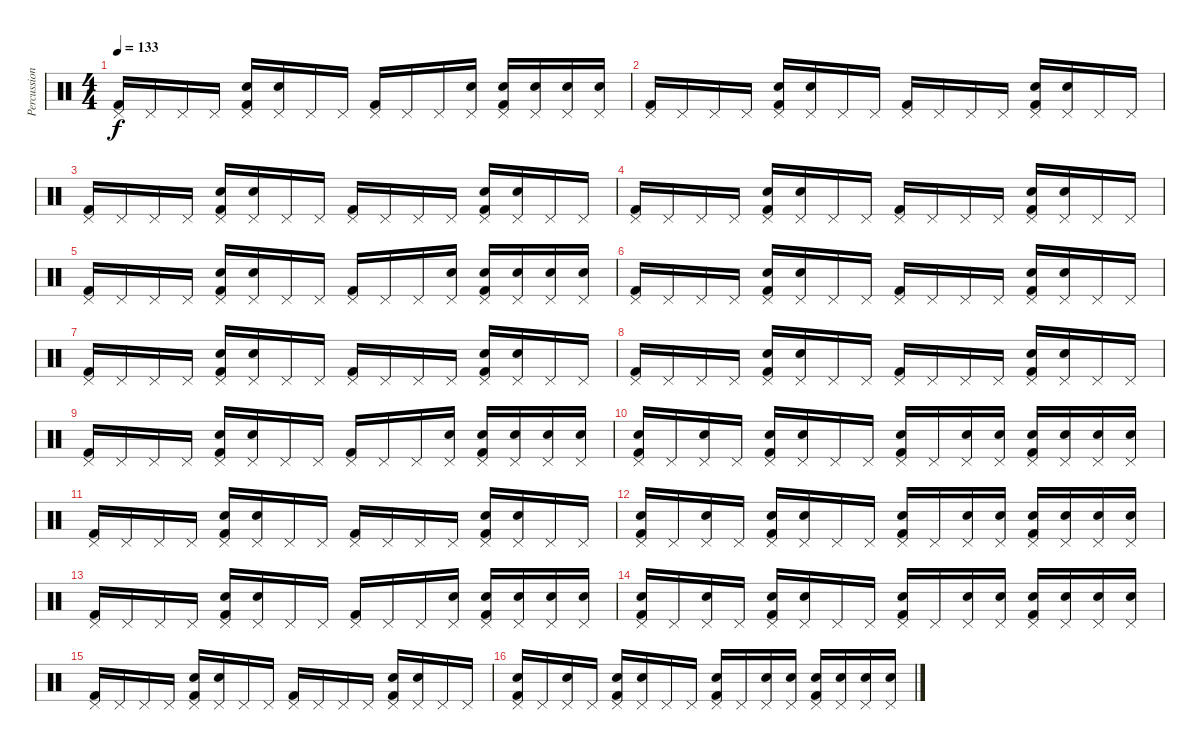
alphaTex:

\track ("Percussions" "Percussion") {instrument percussion}
\staff {score}
\articulation defaults
\ts (4 4)
\tempo 133
\clef neutral
\ks c
("Pedal Hi-Hat (hit)" "Kick (hit) 2").16{dy f} "Pedal Hi-Hat (hit)".16 "Pedal Hi-Hat (hit)".16 "Pedal Hi-Hat (hit)".16 ("Pedal Hi-Hat (hit)" "Electric Snare (hit)" "Kick (hit) 2").16 ("Pedal Hi-Hat (hit)" "Electric Snare (hit)").16 "Pedal Hi-Hat (hit)".16 "Pedal Hi-Hat (hit)".16 ("Pedal Hi-Hat (hit)" "Kick (hit) 2").16 "Pedal Hi-Hat (hit)".16 "Pedal Hi-Hat (hit)".16 ("Pedal Hi-Hat (hit)" "Electric Snare (hit)").16 ("Pedal Hi-Hat (hit)" "Electric Snare (hit)" "Kick (hit) 2").16 ("Pedal Hi-Hat (hit)" "Electric Snare (hit)").16 ("Pedal Hi-Hat (hit)" "Electric Snare (hit)").16 ("Pedal Hi-Hat (hit)" "Electric Snare (hit)").16 |
("Pedal Hi-Hat (hit)" "Kick (hit) 2").16 "Pedal Hi-Hat (hit)".16 "Pedal Hi-Hat (hit)".16 "Pedal Hi-Hat (hit)".16 ("Pedal Hi-Hat (hit)" "Electric Snare (hit)" "Kick (hit) 2").16 ("Pedal Hi-Hat (hit)" "Electric Snare (hit)").16 "Pedal Hi-Hat (hit)".16 "Pedal Hi-Hat (hit)".16 ("Pedal Hi-Hat (hit)" "Kick (hit) 2").16 "Pedal Hi-Hat (hit)".16 "Pedal Hi-Hat (hit)".16 "Pedal Hi-Hat (hit)".16 ("Pedal Hi-Hat (hit)" "Electric Snare (hit)" "Kick (hit) 2").16 ("Pedal Hi-Hat (hit)" "Electric Snare (hit)").16 "Pedal Hi-Hat (hit)".16 "Pedal Hi-Hat (hit)".16 |
("Pedal Hi-Hat (hit)" "Kick (hit) 2").16 "Pedal Hi-Hat (hit)".16 "Pedal Hi-Hat (hit)".16 "Pedal Hi-Hat (hit)".16 ("Pedal Hi-Hat (hit)" "Electric Snare (hit)" "Kick (hit) 2").16 ("Pedal Hi-Hat (hit)" "Electric Snare (hit)").16 "Pedal Hi-Hat (hit)".16 "Pedal Hi-Hat (hit)".16 ("Pedal Hi-Hat (hit)" "Kick (hit) 2").16 "Pedal Hi-Hat (hit)".16 "Pedal Hi-Hat (hit)".16 "Pedal Hi-Hat (hit)".16 ("Pedal Hi-Hat (hit)" "Electric Snare (hit)" "Kick (hit) 2").16 ("Pedal Hi-Hat (hit)" "Electric Snare (hit)").16 "Pedal Hi-Hat (hit)".16 "Pedal Hi-Hat (hit)".16 |
("Pedal Hi-Hat (hit)" "Kick (hit) 2").16 "Pedal Hi-Hat (hit)".16 "Pedal Hi-Hat (hit)".16 "Pedal Hi-Hat (hit)".16 ("Pedal Hi-Hat (hit)" "Electric Snare (hit)" "Kick (hit) 2").16 ("Pedal Hi-Hat (hit)" "Electric Snare (hit)").16 "Pedal Hi-Hat (hit)".16 "Pedal Hi-Hat (hit)".16 ("Pedal Hi-Hat (hit)" "Kick (hit) 2").16 "Pedal Hi-Hat (hit)".16 "Pedal Hi-Hat (hit)".16 "Pedal Hi-Hat (hit)".16 ("Pedal Hi-Hat (hit)" "Electric Snare (hit)" "Kick (hit) 2").16 ("Pedal Hi-Hat (hit)" "Electric Snare (hit)").16 "Pedal Hi-Hat (hit)".16 "Pedal Hi-Hat (hit)".16 |
("Pedal Hi-Hat (hit)" "Kick (hit) 2").16 "Pedal Hi-Hat (hit)".16 "Pedal Hi-Hat (hit)".16 "Pedal Hi-Hat (hit)".16 ("Pedal Hi-Hat (hit)" "Electric Snare (hit)" "Kick (hit) 2").16 ("Pedal Hi-Hat (hit)" "Electric Snare (hit)").16 "Pedal Hi-Hat (hit)".16 "Pedal Hi-Hat (hit)".16 ("Pedal Hi-Hat (hit)" "Kick (hit) 2").16 "Pedal Hi-Hat (hit)".16 "Pedal Hi-Hat (hit)".16 ("Pedal Hi-Hat (hit)" "Electric Snare (hit)").16 ("Pedal Hi-Hat (hit)" "Electric Snare (hit)" "Kick (hit) 2").16 ("Pedal Hi-Hat (hit)" "Electric Snare (hit)").16 ("Pedal Hi-Hat (hit)" "Electric Snare (hit)").16 ("Pedal Hi-Hat (hit)" "Electric Snare (hit)").16 |
("Pedal Hi-Hat (hit)" "Kick (hit) 2").16 "Pedal Hi-Hat (hit)".16 "Pedal Hi-Hat (hit)".16 "Pedal Hi-Hat (hit)".16 ("Pedal Hi-Hat (hit)" "Electric Snare (hit)" "Kick (hit) 2").16 ("Pedal Hi-Hat (hit)" "Electric Snare (hit)").16 "Pedal Hi-Hat (hit)".16 "Pedal Hi-Hat (hit)".16 ("Pedal Hi-Hat (hit)" "Kick (hit) 2").16 "Pedal Hi-Hat (hit)".16 "Pedal Hi-Hat (hit)".16 "Pedal Hi-Hat (hit)".16 ("Pedal Hi-Hat (hit)" "Electric Snare (hit)" "Kick (hit) 2").16 ("Pedal Hi-Hat (hit)" "Electric Snare (hit)").16 "Pedal Hi-Hat (hit)".16 "Pedal Hi-Hat (hit)".16 |
("Pedal Hi-Hat (hit)" "Kick (hit) 2").16 "Pedal Hi-Hat (hit)".16 "Pedal Hi-Hat (hit)".16 "Pedal Hi-Hat (hit)".16 ("Pedal Hi-Hat (hit)" "Electric Snare (hit)" "Kick (hit) 2").16 ("Pedal Hi-Hat (hit)" "Electric Snare (hit)").16 "Pedal Hi-Hat (hit)".16 "Pedal Hi-Hat (hit)".16 ("Pedal Hi-Hat (hit)" "Kick (hit) 2").16 "Pedal Hi-Hat (hit)".16 "Pedal Hi-Hat (hit)".16 "Pedal Hi-Hat (hit)".16 ("Pedal Hi-Hat (hit)" "Electric Snare (hit)" "Kick (hit) 2").16 ("Pedal Hi-Hat (hit)" "Electric Snare (hit)").16 "Pedal Hi-Hat (hit)".16 "Pedal Hi-Hat (hit)".16 |
("Pedal Hi-Hat (hit)" "Kick (hit) 2").16 "Pedal Hi-Hat (hit)".16 "Pedal Hi-Hat (hit)".16 "Pedal Hi-Hat (hit)".16 ("Pedal Hi-Hat (hit)" "Electric Snare (hit)" "Kick (hit) 2").16 ("Pedal Hi-Hat (hit)" "Electric Snare (hit)").16 "Pedal Hi-Hat (hit)".16 "Pedal Hi-Hat (hit)".16 ("Pedal Hi-Hat (hit)" "Kick (hit) 2").16 "Pedal Hi-Hat (hit)".16 "Pedal Hi-Hat (hit)".16 "Pedal Hi-Hat (hit)".16 ("Pedal Hi-Hat (hit)" "Electric Snare (hit)" "Kick (hit) 2").16 ("Pedal Hi-Hat (hit)" "Electric Snare (hit)").16 "Pedal Hi-Hat (hit)".16 "Pedal Hi-Hat (hit)".16 |
("Pedal Hi-Hat (hit)" "Kick (hit) 2").16 "Pedal Hi-Hat (hit)".16 "Pedal Hi-Hat (hit)".16 "Pedal Hi-Hat (hit)".16 ("Pedal Hi-Hat (hit)" "Electric Snare (hit)" "Kick (hit) 2").16 ("Pedal Hi-Hat (hit)" "Electric Snare (hit)").16 "Pedal Hi-Hat (hit)".16 "Pedal Hi-Hat (hit)".16 ("Pedal Hi-Hat (hit)" "Kick (hit) 2").16 "Pedal Hi-Hat (hit)".16 "Pedal Hi-Hat (hit)".16 ("Pedal Hi-Hat (hit)" "Electric Snare (hit)").16 ("Pedal Hi-Hat (hit)" "Electric Snare (hit)" "Kick (hit) 2").16 ("Pedal Hi-Hat (hit)" "Electric Snare (hit)").16 ("Pedal Hi-Hat (hit)" "Electric Snare (hit)").16 ("Pedal Hi-Hat (hit)" "Electric Snare (hit)").16 |
("Pedal Hi-Hat (hit)" "Electric Snare (hit)" "Kick (hit) 2").16 "Pedal Hi-Hat (hit)".16 ("Pedal Hi-Hat (hit)" "Electric Snare (hit)").16 "Pedal Hi-Hat (hit)".16 ("Pedal Hi-Hat (hit)" "Electric Snare (hit)" "Kick (hit) 2").16 ("Pedal Hi-Hat (hit)" "Electric Snare (hit)").16 "Pedal Hi-Hat (hit)".16 "Pedal Hi-Hat (hit)".16 ("Pedal Hi-Hat (hit)" "Electric Snare (hit)" "Kick (hit) 2").16 "Pedal Hi-Hat (hit)".16 ("Pedal Hi-Hat (hit)" "Electric Snare (hit)").16 ("Pedal Hi-Hat (hit)" "Electric Snare (hit)").16 ("Pedal Hi-Hat (hit)" "Electric Snare (hit)" "Kick (hit) 2").16 ("Pedal Hi-Hat (hit)" "Electric Snare (hit)").16 ("Pedal Hi-Hat (hit)" "Electric Snare (hit)").16 ("Pedal Hi-Hat (hit)" "Electric Snare (hit)").16 |
("Pedal Hi-Hat (hit)" "Kick (hit) 2").16 "Pedal Hi-Hat (hit)".16 "Pedal Hi-Hat (hit)".16 "Pedal Hi-Hat (hit)".16 ("Pedal Hi-Hat (hit)" "Electric Snare (hit)" "Kick (hit) 2").16 ("Pedal Hi-Hat (hit)" "Electric Snare (hit)").16 "Pedal Hi-Hat (hit)".16 "Pedal Hi-Hat (hit)".16 ("Pedal Hi-Hat (hit)" "Kick (hit) 2").16 "Pedal Hi-Hat (hit)".16 "Pedal Hi-Hat (hit)".16 "Pedal Hi-Hat (hit)".16 ("Pedal Hi-Hat (hit)" "Electric Snare (hit)" "Kick (hit) 2").16 ("Pedal Hi-Hat (hit)" "Electric Snare (hit)").16 "Pedal Hi-Hat (hit)".16 "Pedal Hi-Hat (hit)".16 |
("Pedal Hi-Hat (hit)" "Electric Snare (hit)" "Kick (hit) 2").16 "Pedal Hi-Hat (hit)".16 ("Pedal Hi-Hat (hit)" "Electric Snare (hit)").16 "Pedal Hi-Hat (hit)".16 ("Pedal Hi-Hat (hit)" "Electric Snare (hit)" "Kick (hit) 2").16 ("Pedal Hi-Hat (hit)" "Electric Snare (hit)").16 "Pedal Hi-Hat (hit)".16 "Pedal Hi-Hat (hit)".16 ("Pedal Hi-Hat (hit)" "Electric Snare (hit)" "Kick (hit) 2").16 "Pedal Hi-Hat (hit)".16 ("Pedal Hi-Hat (hit)" "Electric Snare (hit)").16 ("Pedal Hi-Hat (hit)" "Electric Snare (hit)").16 ("Pedal Hi-Hat (hit)" "Electric Snare (hit)" "Kick (hit) 2").16 ("Pedal Hi-Hat (hit)" "Electric Snare (hit)").16 ("Pedal Hi-Hat (hit)" "Electric Snare (hit)").16 ("Pedal Hi-Hat (hit)" "Electric Snare (hit)").16 |
("Pedal Hi-Hat (hit)" "Kick (hit) 2").16 "Pedal Hi-Hat (hit)".16 "Pedal Hi-Hat (hit)".16 "Pedal Hi-Hat (hit)".16 ("Pedal Hi-Hat (hit)" "Electric Snare (hit)" "Kick (hit) 2").16 ("Pedal Hi-Hat (hit)" "Electric Snare (hit)").16 "Pedal Hi-Hat (hit)".16 "Pedal Hi-Hat (hit)".16 ("Pedal Hi-Hat (hit)" "Kick (hit) 2").16 "Pedal Hi-Hat (hit)".16 "Pedal Hi-Hat (hit)".16 ("Pedal Hi-Hat (hit)" "Electric Snare (hit)").16 ("Pedal Hi-Hat (hit)" "Electric Snare (hit)" "Kick (hit) 2").16 ("Pedal Hi-Hat (hit)" "Electric Snare (hit)").16 ("Pedal Hi-Hat (hit)" "Electric Snare (hit)").16 ("Pedal Hi-Hat (hit)" "Electric Snare (hit)").16 |
("Pedal Hi-Hat (hit)" "Electric Snare (hit)" "Kick (hit) 2").16 "Pedal Hi-Hat (hit)".16 ("Pedal Hi-Hat (hit)" "Electric Snare (hit)").16 "Pedal Hi-Hat (hit)".16 ("Pedal Hi-Hat (hit)" "Electric Snare (hit)" "Kick (hit) 2").16 ("Pedal Hi-Hat (hit)" "Electric Snare (hit)").16 "Pedal Hi-Hat (hit)".16 "Pedal Hi-Hat (hit)".16 ("Pedal Hi-Hat (hit)" "Electric Snare (hit)" "Kick (hit) 2").16 "Pedal Hi-Hat (hit)".16 ("Pedal Hi-Hat (hit)" "Electric Snare (hit)").16 ("Pedal Hi-Hat (hit)" "Electric Snare (hit)").16 ("Pedal Hi-Hat (hit)" "Electric Snare (hit)" "Kick (hit) 2").16 ("Pedal Hi-Hat (hit)" "Electric Snare (hit)").16 ("Pedal Hi-Hat (hit)" "Electric Snare (hit)").16 ("Pedal Hi-Hat (hit)" "Electric Snare (hit)").16 |
("Pedal Hi-Hat (hit)" "Kick (hit) 2").16 "Pedal Hi-Hat (hit)".16 "Pedal Hi-Hat (hit)".16 "Pedal Hi-Hat (hit)".16 ("Pedal Hi-Hat (hit)" "Electric Snare (hit)" "Kick (hit) 2").16 ("Pedal Hi-Hat (hit)" "Electric Snare (hit)").16 "Pedal Hi-Hat (hit)".16 "Pedal Hi-Hat (hit)".16 ("Pedal Hi-Hat (hit)" "Kick (hit) 2").16 "Pedal Hi-Hat (hit)".16 "Pedal Hi-Hat (hit)".16 "Pedal Hi-Hat (hit)".16 ("Pedal Hi-Hat (hit)" "Electric Snare (hit)" "Kick (hit) 2").16 ("Pedal Hi-Hat (hit)" "Electric Snare (hit)").16 "Pedal Hi-Hat (hit)".16 "Pedal Hi-Hat (hit)".16 |
("Pedal Hi-Hat (hit)" "Electric Snare (hit)" "Kick (hit) 2").16 "Pedal Hi-Hat (hit)".16 ("Pedal Hi-Hat (hit)" "Electric Snare (hit)").16 "Pedal Hi-Hat (hit)".16 ("Pedal Hi-Hat (hit)" "Electric Snare (hit)" "Kick (hit) 2").16 ("Pedal Hi-Hat (hit)" "Electric Snare (hit)").16 "Pedal Hi-Hat (hit)".16 "Pedal Hi-Hat (hit)".16 ("Pedal Hi-Hat (hit)" "Electric Snare (hit)" "Kick (hit) 2").16 "Pedal Hi-Hat (hit)".16 ("Pedal Hi-Hat (hit)" "Electric Snare (hit)").16 ("Pedal Hi-Hat (hit)" "Electric Snare (hit)").16 ("Pedal Hi-Hat (hit)" "Electric Snare (hit)" "Kick (hit) 2").16 ("Pedal Hi-Hat (hit)" "Electric Snare (hit)").16 ("Pedal Hi-Hat (hit)" "Electric Snare (hit)").16 ("Pedal Hi-Hat (hit)" "Electric Snare (hit)").16
